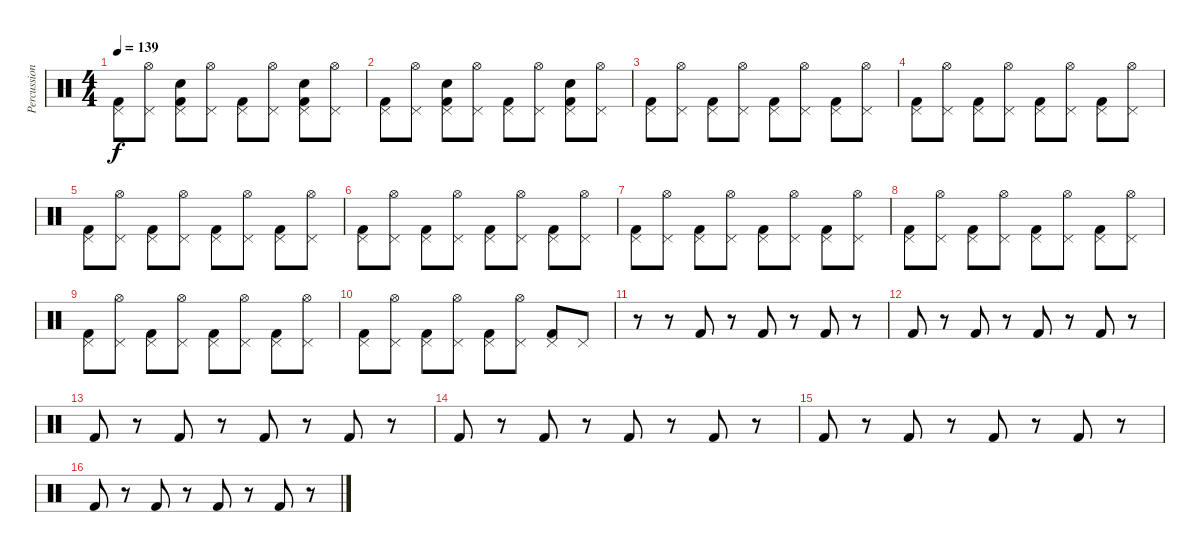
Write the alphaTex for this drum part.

\track ("Percussion" "Percussion") {instrument percussion}
\staff {score}
\articulation defaults
\ts (4 4)
\tempo 139
\clef neutral
\ks c
("Kick (hit) 2" "Pedal Hi-Hat (hit)").8{dy f} ("Pedal Hi-Hat (hit)" "Hi-Hat (open)").8 ("Kick (hit) 2" "Pedal Hi-Hat (hit)" "Electric Snare (hit)").8 ("Pedal Hi-Hat (hit)" "Hi-Hat (open)").8 ("Kick (hit) 2" "Pedal Hi-Hat (hit)").8 ("Pedal Hi-Hat (hit)" "Hi-Hat (open)").8 ("Kick (hit) 2" "Pedal Hi-Hat (hit)" "Electric Snare (hit)").8 ("Pedal Hi-Hat (hit)" "Hi-Hat (open)").8 |
("Kick (hit) 2" "Pedal Hi-Hat (hit)").8 ("Pedal Hi-Hat (hit)" "Hi-Hat (open)").8 ("Kick (hit) 2" "Pedal Hi-Hat (hit)" "Electric Snare (hit)").8 ("Pedal Hi-Hat (hit)" "Hi-Hat (open)").8 ("Kick (hit) 2" "Pedal Hi-Hat (hit)").8 ("Pedal Hi-Hat (hit)" "Hi-Hat (open)").8 ("Kick (hit) 2" "Pedal Hi-Hat (hit)" "Electric Snare (hit)").8 ("Pedal Hi-Hat (hit)" "Hi-Hat (open)").8 |
("Kick (hit) 2" "Pedal Hi-Hat (hit)").8 ("Pedal Hi-Hat (hit)" "Hi-Hat (open)").8 ("Kick (hit) 2" "Pedal Hi-Hat (hit)").8 ("Pedal Hi-Hat (hit)" "Hi-Hat (open)").8 ("Kick (hit) 2" "Pedal Hi-Hat (hit)").8 ("Pedal Hi-Hat (hit)" "Hi-Hat (open)").8 ("Kick (hit) 2" "Pedal Hi-Hat (hit)").8 ("Pedal Hi-Hat (hit)" "Hi-Hat (open)").8 |
("Kick (hit) 2" "Pedal Hi-Hat (hit)").8 ("Pedal Hi-Hat (hit)" "Hi-Hat (open)").8 ("Kick (hit) 2" "Pedal Hi-Hat (hit)").8 ("Pedal Hi-Hat (hit)" "Hi-Hat (open)").8 ("Kick (hit) 2" "Pedal Hi-Hat (hit)").8 ("Pedal Hi-Hat (hit)" "Hi-Hat (open)").8 ("Kick (hit) 2" "Pedal Hi-Hat (hit)").8 ("Pedal Hi-Hat (hit)" "Hi-Hat (open)").8 |
("Kick (hit) 2" "Pedal Hi-Hat (hit)").8 ("Pedal Hi-Hat (hit)" "Hi-Hat (open)").8 ("Kick (hit) 2" "Pedal Hi-Hat (hit)").8 ("Pedal Hi-Hat (hit)" "Hi-Hat (open)").8 ("Kick (hit) 2" "Pedal Hi-Hat (hit)").8 ("Pedal Hi-Hat (hit)" "Hi-Hat (open)").8 ("Kick (hit) 2" "Pedal Hi-Hat (hit)").8 ("Pedal Hi-Hat (hit)" "Hi-Hat (open)").8 |
("Kick (hit) 2" "Pedal Hi-Hat (hit)").8 ("Pedal Hi-Hat (hit)" "Hi-Hat (open)").8 ("Kick (hit) 2" "Pedal Hi-Hat (hit)").8 ("Pedal Hi-Hat (hit)" "Hi-Hat (open)").8 ("Kick (hit) 2" "Pedal Hi-Hat (hit)").8 ("Pedal Hi-Hat (hit)" "Hi-Hat (open)").8 ("Kick (hit) 2" "Pedal Hi-Hat (hit)").8 ("Pedal Hi-Hat (hit)" "Hi-Hat (open)").8 |
("Kick (hit) 2" "Pedal Hi-Hat (hit)").8 ("Pedal Hi-Hat (hit)" "Hi-Hat (open)").8 ("Kick (hit) 2" "Pedal Hi-Hat (hit)").8 ("Pedal Hi-Hat (hit)" "Hi-Hat (open)").8 ("Kick (hit) 2" "Pedal Hi-Hat (hit)").8 ("Pedal Hi-Hat (hit)" "Hi-Hat (open)").8 ("Kick (hit) 2" "Pedal Hi-Hat (hit)").8 ("Pedal Hi-Hat (hit)" "Hi-Hat (open)").8 |
("Kick (hit) 2" "Pedal Hi-Hat (hit)").8 ("Pedal Hi-Hat (hit)" "Hi-Hat (open)").8 ("Kick (hit) 2" "Pedal Hi-Hat (hit)").8 ("Pedal Hi-Hat (hit)" "Hi-Hat (open)").8 ("Kick (hit) 2" "Pedal Hi-Hat (hit)").8 ("Pedal Hi-Hat (hit)" "Hi-Hat (open)").8 ("Kick (hit) 2" "Pedal Hi-Hat (hit)").8 ("Pedal Hi-Hat (hit)" "Hi-Hat (open)").8 |
("Kick (hit) 2" "Pedal Hi-Hat (hit)").8 ("Pedal Hi-Hat (hit)" "Hi-Hat (open)").8 ("Kick (hit) 2" "Pedal Hi-Hat (hit)").8 ("Pedal Hi-Hat (hit)" "Hi-Hat (open)").8 ("Kick (hit) 2" "Pedal Hi-Hat (hit)").8 ("Pedal Hi-Hat (hit)" "Hi-Hat (open)").8 ("Kick (hit) 2" "Pedal Hi-Hat (hit)").8 ("Pedal Hi-Hat (hit)" "Hi-Hat (open)").8 |
("Kick (hit) 2" "Pedal Hi-Hat (hit)").8 ("Pedal Hi-Hat (hit)" "Hi-Hat (open)").8 ("Kick (hit) 2" "Pedal Hi-Hat (hit)").8 ("Pedal Hi-Hat (hit)" "Hi-Hat (open)").8 ("Kick (hit) 2" "Pedal Hi-Hat (hit)").8 ("Pedal Hi-Hat (hit)" "Hi-Hat (open)").8 ("Kick (hit) 2" "Pedal Hi-Hat (hit)").8 "Pedal Hi-Hat (hit)".8 |
r.8 r.8 "Kick (hit) 2".8 r.8 "Kick (hit) 2".8 r.8 "Kick (hit) 2".8 r.8 |
"Kick (hit) 2".8 r.8 "Kick (hit) 2".8 r.8 "Kick (hit) 2".8 r.8 "Kick (hit) 2".8 r.8 |
"Kick (hit) 2".8 r.8 "Kick (hit) 2".8 r.8 "Kick (hit) 2".8 r.8 "Kick (hit) 2".8 r.8 |
"Kick (hit) 2".8 r.8 "Kick (hit) 2".8 r.8 "Kick (hit) 2".8 r.8 "Kick (hit) 2".8 r.8 |
"Kick (hit) 2".8 r.8 "Kick (hit) 2".8 r.8 "Kick (hit) 2".8 r.8 "Kick (hit) 2".8 r.8 |
"Kick (hit) 2".8 r.8 "Kick (hit) 2".8 r.8 "Kick (hit) 2".8 r.8 "Kick (hit) 2".8 r.8
